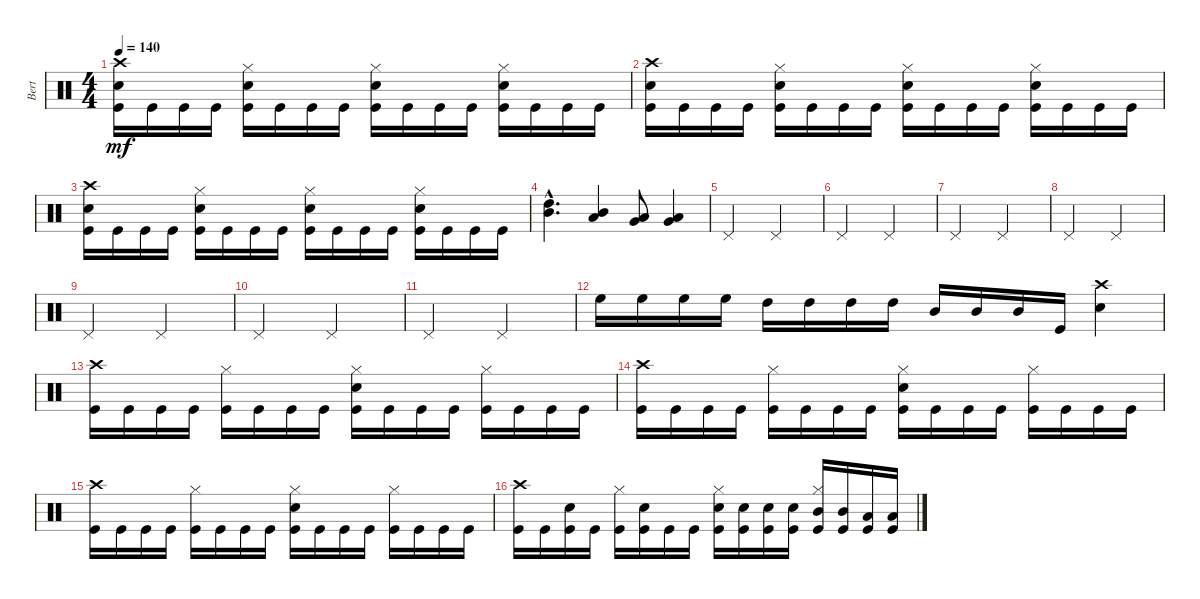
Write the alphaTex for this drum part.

\track ("Bert" "Bert") {instrument percussion}
\staff {score}
\articulation defaults
\ts (4 4)
\tempo 140
\clef neutral
\ks c
("Crash high (hit)" "Electric Snare (hit)" "Kick (hit)").16{dy mf} "Kick (hit)".16 "Kick (hit)".16 "Kick (hit)".16 ("Kick (hit)" "Electric Snare (hit)" "Hi-Hat (closed)").16 "Kick (hit)".16 "Kick (hit)".16 "Kick (hit)".16 ("Hi-Hat (closed)" "Electric Snare (hit)" "Kick (hit)").16 "Kick (hit)".16 "Kick (hit)".16 "Kick (hit)".16 ("Electric Snare (hit)" "Kick (hit)" "Hi-Hat (closed)").16 "Kick (hit)".16 "Kick (hit)".16 "Kick (hit)".16 |
("Crash high (hit)" "Electric Snare (hit)" "Kick (hit)").16 "Kick (hit)".16 "Kick (hit)".16 "Kick (hit)".16 ("Electric Snare (hit)" "Kick (hit)" "Hi-Hat (closed)").16 "Kick (hit)".16 "Kick (hit)".16 "Kick (hit)".16 ("Hi-Hat (closed)" "Kick (hit)" "Electric Snare (hit)").16 "Kick (hit)".16 "Kick (hit)".16 "Kick (hit)".16 ("Kick (hit)" "Hi-Hat (closed)" "Electric Snare (hit)").16 "Kick (hit)".16 "Kick (hit)".16 "Kick (hit)".16 |
("Crash high (hit)" "Electric Snare (hit)" "Kick (hit)").16 "Kick (hit)".16 "Kick (hit)".16 "Kick (hit)".16 ("Electric Snare (hit)" "Hi-Hat (closed)" "Kick (hit)").16 "Kick (hit)".16 "Kick (hit)".16 "Kick (hit)".16 ("Electric Snare (hit)" "Kick (hit)" "Hi-Hat (closed)").16 "Kick (hit)".16 "Kick (hit)".16 "Kick (hit)".16 ("Hi-Hat (closed)" "Electric Snare (hit)" "Kick (hit)").16 "Kick (hit)".16 "Kick (hit)".16 "Kick (hit)".16 |
("High Tom (hit)"{hac} "Mid Tom (hit)"{hac}).4{d} ("Mid Tom (hit)" "Low Tom (hit)").4 ("Very Low Tom (hit)" "Low Tom (hit)").8 ("Low Tom (hit)" "Very Low Tom (hit)").4 |
"Pedal Hi-Hat (hit)".2 "Pedal Hi-Hat (hit)".2 |
"Pedal Hi-Hat (hit)".2 "Pedal Hi-Hat (hit)".2 |
"Pedal Hi-Hat (hit)".2 "Pedal Hi-Hat (hit)".2 |
"Pedal Hi-Hat (hit)".2 "Pedal Hi-Hat (hit)".2 |
"Pedal Hi-Hat (hit)".2 "Pedal Hi-Hat (hit)".2 |
"Pedal Hi-Hat (hit)".2 "Pedal Hi-Hat (hit)".2 |
"Pedal Hi-Hat (hit)".2 "Pedal Hi-Hat (hit)".2 |
"High Floor Tom (hit)".16 "High Floor Tom (hit)".16 "High Floor Tom (hit)".16 "High Floor Tom (hit)".16 "High Tom (hit)".16 "High Tom (hit)".16 "High Tom (hit)".16 "High Tom (hit)".16 "Mid Tom (hit)".16 "Mid Tom (hit)".16 "Mid Tom (hit)".16 "Kick (hit)".16 ("Crash high (hit)" "Electric Snare (hit)").4 |
("Kick (hit)" "Crash high (hit)").16 "Kick (hit)".16 "Kick (hit)".16 "Kick (hit)".16 ("Hi-Hat (closed)" "Kick (hit)").16 "Kick (hit)".16 "Kick (hit)".16 "Kick (hit)".16 ("Hi-Hat (closed)" "Electric Snare (hit)" "Kick (hit)").16 "Kick (hit)".16 "Kick (hit)".16 "Kick (hit)".16 ("Hi-Hat (closed)" "Kick (hit)").16 "Kick (hit)".16 "Kick (hit)".16 "Kick (hit)".16 |
("Crash high (hit)" "Kick (hit)").16 "Kick (hit)".16 "Kick (hit)".16 "Kick (hit)".16 ("Hi-Hat (closed)" "Kick (hit)").16 "Kick (hit)".16 "Kick (hit)".16 "Kick (hit)".16 ("Kick (hit)" "Electric Snare (hit)" "Hi-Hat (closed)").16 "Kick (hit)".16 "Kick (hit)".16 "Kick (hit)".16 ("Kick (hit)" "Hi-Hat (closed)").16 "Kick (hit)".16 "Kick (hit)".16 "Kick (hit)".16 |
("Kick (hit)" "Crash high (hit)").16 "Kick (hit)".16 "Kick (hit)".16 "Kick (hit)".16 ("Kick (hit)" "Hi-Hat (closed)").16 "Kick (hit)".16 "Kick (hit)".16 "Kick (hit)".16 ("Electric Snare (hit)" "Hi-Hat (closed)" "Kick (hit)").16 "Kick (hit)".16 "Kick (hit)".16 "Kick (hit)".16 ("Hi-Hat (closed)" "Kick (hit)").16 "Kick (hit)".16 "Kick (hit)".16 "Kick (hit)".16 |
("Kick (hit)" "Crash high (hit)").16 "Kick (hit)".16 ("Electric Snare (hit)" "Kick (hit)").16 "Kick (hit)".16 ("Hi-Hat (closed)" "Kick (hit)").16 ("Electric Snare (hit)" "Kick (hit)").16 "Kick (hit)".16 "Kick (hit)".16 ("Kick (hit)" "Hi-Hat (closed)" "Electric Snare (hit)").16 ("Kick (hit)" "Electric Snare (hit)").16 ("Kick (hit)" "Electric Snare (hit)").16 ("Electric Snare (hit)" "Kick (hit)").16 ("Kick (hit)" "Mid Tom (hit)" "Hi-Hat (closed)").16 ("Kick (hit)" "Mid Tom (hit)").16 ("Low Tom (hit)" "Kick (hit)").16 ("Low Tom (hit)" "Kick (hit)").16
